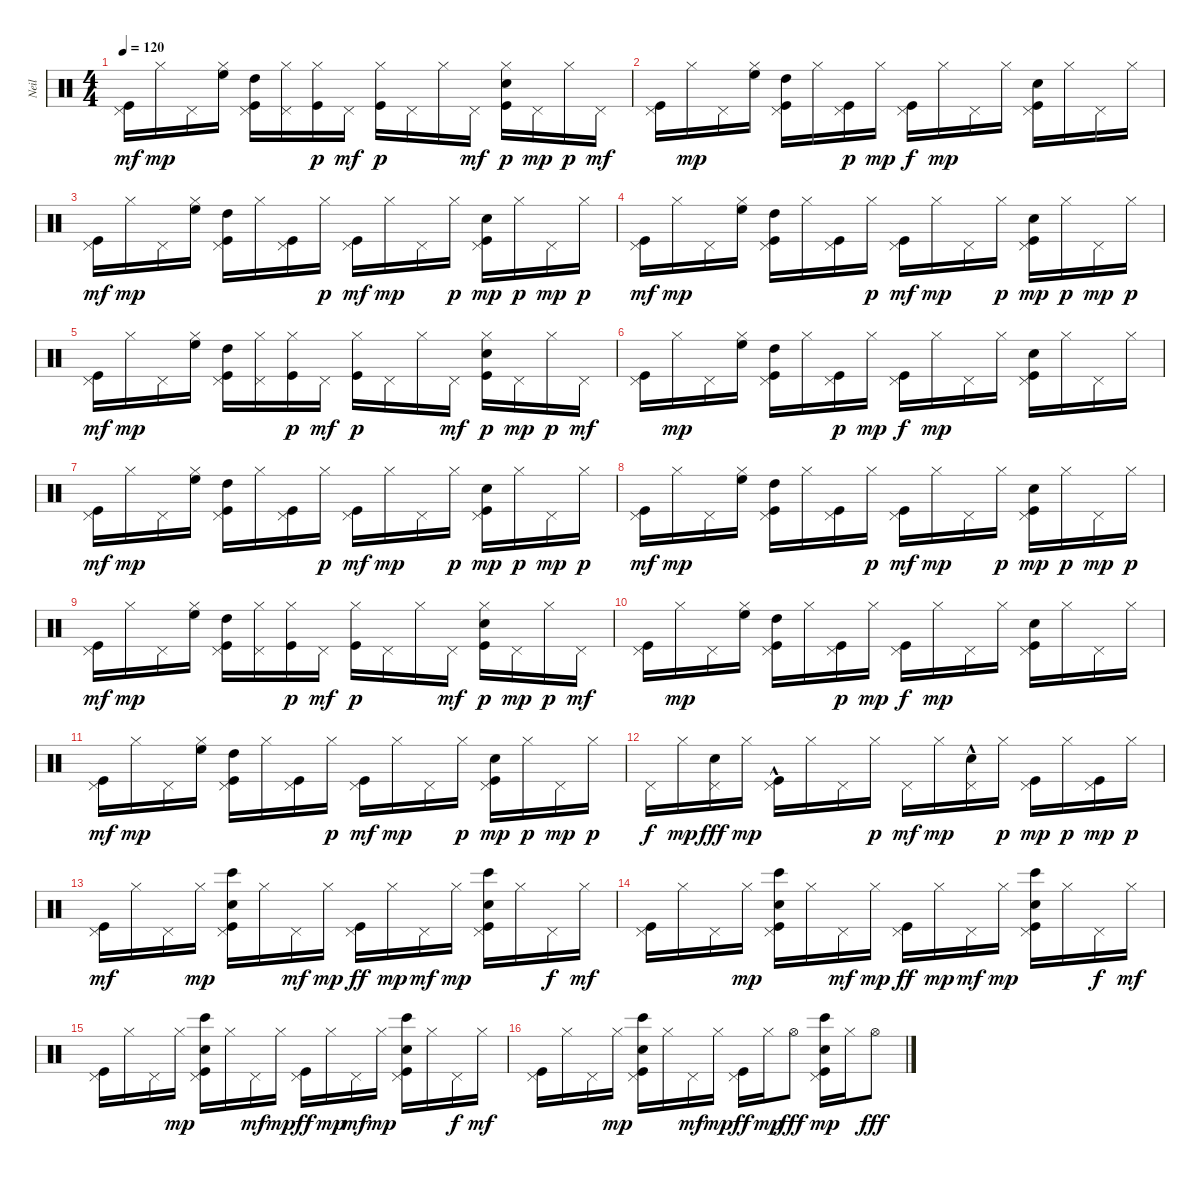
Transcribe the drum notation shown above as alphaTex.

\track ("Neil" "Neil") {instrument percussion}
\staff {score}
\articulation defaults
\ts (4 4)
\tempo 120
\clef neutral
\ks c
("Kick (hit)" "Pedal Hi-Hat (hit)").16{dy mf volume 12} "Hi-Hat (closed)".16{dy mp volume 11} "Pedal Hi-Hat (hit)".16 ("High Floor Tom (hit)" "Hi-Hat (closed)").16 ("Kick (hit)" "High Tom (hit)" "Pedal Hi-Hat (hit)").16 ("Hi-Hat (closed)" "Pedal Hi-Hat (hit)").16 ("Kick (hit)" "Hi-Hat (closed)").16{dy p volume 11} "Pedal Hi-Hat (hit)".16{dy mf} ("Kick (hit)" "Hi-Hat (closed)").16{dy p} "Pedal Hi-Hat (hit)".16 "Hi-Hat (closed)".16 "Pedal Hi-Hat (hit)".16{dy mf} ("Electric Snare (hit)" "Kick (hit)" "Hi-Hat (closed)").16{dy p} "Pedal Hi-Hat (hit)".16{dy mp volume 11} "Hi-Hat (closed)".16{dy p} "Pedal Hi-Hat (hit)".16{dy mf} |
("Kick (hit)" "Pedal Hi-Hat (hit)").16 "Hi-Hat (closed)".16{dy mp} "Pedal Hi-Hat (hit)".16 ("High Floor Tom (hit)" "Hi-Hat (closed)").16 ("Kick (hit)" "High Tom (hit)" "Pedal Hi-Hat (hit)").16 "Hi-Hat (closed)".16 ("Kick (hit)" "Pedal Hi-Hat (hit)").16{dy p} "Hi-Hat (closed)".16{dy mp} ("Kick (hit)" "Pedal Hi-Hat (hit)").16{dy f} "Hi-Hat (closed)".16{dy mp} "Pedal Hi-Hat (hit)".16 "Hi-Hat (closed)".16 ("Electric Snare (hit)" "Kick (hit)" "Pedal Hi-Hat (hit)").16 "Hi-Hat (closed)".16 "Pedal Hi-Hat (hit)".16 "Hi-Hat (closed)".16 |
("Kick (hit)" "Pedal Hi-Hat (hit)").16{dy mf} "Hi-Hat (closed)".16{dy mp} "Pedal Hi-Hat (hit)".16 ("High Floor Tom (hit)" "Hi-Hat (closed)").16 ("Kick (hit)" "High Tom (hit)" "Pedal Hi-Hat (hit)").16 "Hi-Hat (closed)".16 ("Kick (hit)" "Pedal Hi-Hat (hit)").16 "Hi-Hat (closed)".16{dy p} ("Kick (hit)" "Pedal Hi-Hat (hit)").16{dy mf} "Hi-Hat (closed)".16{dy mp} "Pedal Hi-Hat (hit)".16 "Hi-Hat (closed)".16{dy p} ("Electric Snare (hit)" "Kick (hit)" "Pedal Hi-Hat (hit)").16{dy mp} "Hi-Hat (closed)".16{dy p} "Pedal Hi-Hat (hit)".16{dy mp} "Hi-Hat (closed)".16{dy p} |
("Kick (hit)" "Pedal Hi-Hat (hit)").16{dy mf volume 11} "Hi-Hat (closed)".16{dy mp} "Pedal Hi-Hat (hit)".16 ("High Floor Tom (hit)" "Hi-Hat (closed)").16 ("Kick (hit)" "High Tom (hit)" "Pedal Hi-Hat (hit)").16 "Hi-Hat (closed)".16 ("Kick (hit)" "Pedal Hi-Hat (hit)").16 "Hi-Hat (closed)".16{dy p} ("Kick (hit)" "Pedal Hi-Hat (hit)").16{dy mf} "Hi-Hat (closed)".16{dy mp} "Pedal Hi-Hat (hit)".16 "Hi-Hat (closed)".16{dy p} ("Kick (hit)" "Electric Snare (hit)" "Pedal Hi-Hat (hit)").16{dy mp} "Hi-Hat (closed)".16{dy p} "Pedal Hi-Hat (hit)".16{dy mp} "Hi-Hat (closed)".16{dy p} |
("Kick (hit)" "Pedal Hi-Hat (hit)").16{dy mf} "Hi-Hat (closed)".16{dy mp} "Pedal Hi-Hat (hit)".16 ("High Floor Tom (hit)" "Hi-Hat (closed)").16 ("Kick (hit)" "High Tom (hit)" "Pedal Hi-Hat (hit)").16 ("Hi-Hat (closed)" "Pedal Hi-Hat (hit)").16 ("Kick (hit)" "Hi-Hat (closed)").16{dy p} "Pedal Hi-Hat (hit)".16{dy mf} ("Kick (hit)" "Hi-Hat (closed)").16{dy p} "Pedal Hi-Hat (hit)".16 "Hi-Hat (closed)".16 "Pedal Hi-Hat (hit)".16{dy mf volume 11} ("Kick (hit)" "Electric Snare (hit)" "Hi-Hat (closed)").16{dy p} "Pedal Hi-Hat (hit)".16{dy mp} "Hi-Hat (closed)".16{dy p} "Pedal Hi-Hat (hit)".16{dy mf} |
("Kick (hit)" "Pedal Hi-Hat (hit)").16 "Hi-Hat (closed)".16{dy mp} "Pedal Hi-Hat (hit)".16 ("High Floor Tom (hit)" "Hi-Hat (closed)").16 ("Kick (hit)" "High Tom (hit)" "Pedal Hi-Hat (hit)").16 "Hi-Hat (closed)".16 ("Kick (hit)" "Pedal Hi-Hat (hit)").16{dy p} "Hi-Hat (closed)".16{dy mp} ("Kick (hit)" "Pedal Hi-Hat (hit)").16{dy f} "Hi-Hat (closed)".16{dy mp} "Pedal Hi-Hat (hit)".16 "Hi-Hat (closed)".16 ("Kick (hit)" "Electric Snare (hit)" "Pedal Hi-Hat (hit)").16 "Hi-Hat (closed)".16 "Pedal Hi-Hat (hit)".16 "Hi-Hat (closed)".16 |
("Kick (hit)" "Pedal Hi-Hat (hit)").16{dy mf} "Hi-Hat (closed)".16{dy mp} "Pedal Hi-Hat (hit)".16 ("High Floor Tom (hit)" "Hi-Hat (closed)").16 ("Kick (hit)" "High Tom (hit)" "Pedal Hi-Hat (hit)").16 "Hi-Hat (closed)".16 ("Kick (hit)" "Pedal Hi-Hat (hit)").16 "Hi-Hat (closed)".16{dy p} ("Kick (hit)" "Pedal Hi-Hat (hit)").16{dy mf} "Hi-Hat (closed)".16{dy mp} "Pedal Hi-Hat (hit)".16 "Hi-Hat (closed)".16{dy p} ("Kick (hit)" "Electric Snare (hit)" "Pedal Hi-Hat (hit)").16{dy mp} "Hi-Hat (closed)".16{dy p} "Pedal Hi-Hat (hit)".16{dy mp} "Hi-Hat (closed)".16{dy p} |
("Kick (hit)" "Pedal Hi-Hat (hit)").16{dy mf} "Hi-Hat (closed)".16{dy mp} "Pedal Hi-Hat (hit)".16 ("High Floor Tom (hit)" "Hi-Hat (closed)").16 ("Kick (hit)" "High Tom (hit)" "Pedal Hi-Hat (hit)").16 "Hi-Hat (closed)".16 ("Kick (hit)" "Pedal Hi-Hat (hit)").16 "Hi-Hat (closed)".16{dy p} ("Kick (hit)" "Pedal Hi-Hat (hit)").16{dy mf} "Hi-Hat (closed)".16{dy mp} "Pedal Hi-Hat (hit)".16 "Hi-Hat (closed)".16{dy p} ("Kick (hit)" "Electric Snare (hit)" "Pedal Hi-Hat (hit)").16{dy mp} "Hi-Hat (closed)".16{dy p} "Pedal Hi-Hat (hit)".16{dy mp} "Hi-Hat (closed)".16{dy p} |
("Kick (hit)" "Pedal Hi-Hat (hit)").16{dy mf} "Hi-Hat (closed)".16{dy mp} "Pedal Hi-Hat (hit)".16 ("High Floor Tom (hit)" "Hi-Hat (closed)").16 ("Kick (hit)" "High Tom (hit)" "Pedal Hi-Hat (hit)").16 ("Hi-Hat (closed)" "Pedal Hi-Hat (hit)").16 ("Kick (hit)" "Hi-Hat (closed)").16{dy p} "Pedal Hi-Hat (hit)".16{dy mf} ("Kick (hit)" "Hi-Hat (closed)").16{dy p} "Pedal Hi-Hat (hit)".16 "Hi-Hat (closed)".16 "Pedal Hi-Hat (hit)".16{dy mf} ("Kick (hit)" "Electric Snare (hit)" "Hi-Hat (closed)").16{dy p} "Pedal Hi-Hat (hit)".16{dy mp} "Hi-Hat (closed)".16{dy p} "Pedal Hi-Hat (hit)".16{dy mf} |
("Kick (hit)" "Pedal Hi-Hat (hit)").16 "Hi-Hat (closed)".16{dy mp} "Pedal Hi-Hat (hit)".16 ("High Floor Tom (hit)" "Hi-Hat (closed)").16 ("Kick (hit)" "High Tom (hit)" "Pedal Hi-Hat (hit)").16 "Hi-Hat (closed)".16 ("Kick (hit)" "Pedal Hi-Hat (hit)").16{dy p} "Hi-Hat (closed)".16{dy mp} ("Kick (hit)" "Pedal Hi-Hat (hit)").16{dy f} "Hi-Hat (closed)".16{dy mp} "Pedal Hi-Hat (hit)".16 "Hi-Hat (closed)".16 ("Kick (hit)" "Electric Snare (hit)" "Pedal Hi-Hat (hit)").16 "Hi-Hat (closed)".16 "Pedal Hi-Hat (hit)".16 "Hi-Hat (closed)".16 |
("Kick (hit)" "Pedal Hi-Hat (hit)").16{dy mf} "Hi-Hat (closed)".16{dy mp} "Pedal Hi-Hat (hit)".16 ("High Floor Tom (hit)" "Hi-Hat (closed)").16 ("Kick (hit)" "High Tom (hit)" "Pedal Hi-Hat (hit)").16 "Hi-Hat (closed)".16 ("Kick (hit)" "Pedal Hi-Hat (hit)").16 "Hi-Hat (closed)".16{dy p} ("Kick (hit)" "Pedal Hi-Hat (hit)").16{dy mf} "Hi-Hat (closed)".16{dy mp} "Pedal Hi-Hat (hit)".16 "Hi-Hat (closed)".16{dy p} ("Kick (hit)" "Electric Snare (hit)" "Pedal Hi-Hat (hit)").16{dy mp} "Hi-Hat (closed)".16{dy p} "Pedal Hi-Hat (hit)".16{dy mp} "Hi-Hat (closed)".16{dy p} |
"Pedal Hi-Hat (hit)".16{dy f} "Hi-Hat (closed)".16{dy mp volume 11} ("Pedal Hi-Hat (hit)" "Electric Snare (hit)").16{dy fff} "Hi-Hat (closed)".16{dy mp} ("Pedal Hi-Hat (hit)" "Kick (hit)"{hac}).16 "Hi-Hat (closed)".16 "Pedal Hi-Hat (hit)".16 "Hi-Hat (closed)".16{dy p} "Pedal Hi-Hat (hit)".16{dy mf} "Hi-Hat (closed)".16{dy mp} ("Pedal Hi-Hat (hit)" "Electric Snare (hit)"{hac}).16 "Hi-Hat (closed)".16{dy p} ("Pedal Hi-Hat (hit)" "Kick (hit)").16{dy mp} "Hi-Hat (closed)".16{dy p} ("Pedal Hi-Hat (hit)" "Kick (hit)").16{dy mp} "Hi-Hat (closed)".16{dy p} |
("Pedal Hi-Hat (hit)" "Kick (hit)").16{dy mf} "Hi-Hat (closed)".16 "Pedal Hi-Hat (hit)".16 "Hi-Hat (closed)".16{dy mp} ("Electric Snare (hit)" "Pedal Hi-Hat (hit)" "Kick (hit)" "Bongo High (hit)").16 "Hi-Hat (closed)".16 "Pedal Hi-Hat (hit)".16{dy mf} "Hi-Hat (closed)".16{dy mp} ("Pedal Hi-Hat (hit)" "Kick (hit)").16{dy ff volume 11} "Hi-Hat (closed)".16{dy mp} "Pedal Hi-Hat (hit)".16{dy mf} "Hi-Hat (closed)".16{dy mp} ("Electric Snare (hit)" "Pedal Hi-Hat (hit)" "Kick (hit)" "Bongo High (hit)").16 "Hi-Hat (closed)".16 "Pedal Hi-Hat (hit)".16{dy f} "Hi-Hat (closed)".16{dy mf} |
("Pedal Hi-Hat (hit)" "Kick (hit)").16 "Hi-Hat (closed)".16 "Pedal Hi-Hat (hit)".16 "Hi-Hat (closed)".16{dy mp} ("Electric Snare (hit)" "Pedal Hi-Hat (hit)" "Kick (hit)" "Bongo High (hit)").16 "Hi-Hat (closed)".16 "Pedal Hi-Hat (hit)".16{dy mf} "Hi-Hat (closed)".16{dy mp} ("Pedal Hi-Hat (hit)" "Kick (hit)").16{dy ff} "Hi-Hat (closed)".16{dy mp} "Pedal Hi-Hat (hit)".16{dy mf} "Hi-Hat (closed)".16{dy mp} ("Electric Snare (hit)" "Pedal Hi-Hat (hit)" "Kick (hit)" "Bongo High (hit)").16 "Hi-Hat (closed)".16 "Pedal Hi-Hat (hit)".16{dy f} "Hi-Hat (closed)".16{dy mf} |
("Pedal Hi-Hat (hit)" "Kick (hit)").16 "Hi-Hat (closed)".16 "Pedal Hi-Hat (hit)".16 "Hi-Hat (closed)".16{dy mp} ("Electric Snare (hit)" "Pedal Hi-Hat (hit)" "Kick (hit)" "Bongo High (hit)").16 "Hi-Hat (closed)".16 "Pedal Hi-Hat (hit)".16{dy mf} "Hi-Hat (closed)".16{dy mp} ("Pedal Hi-Hat (hit)" "Kick (hit)").16{dy ff} "Hi-Hat (closed)".16{dy mp} "Pedal Hi-Hat (hit)".16{dy mf} "Hi-Hat (closed)".16{dy mp} ("Electric Snare (hit)" "Pedal Hi-Hat (hit)" "Kick (hit)" "Bongo High (hit)").16 "Hi-Hat (closed)".16 "Pedal Hi-Hat (hit)".16{dy f} "Hi-Hat (closed)".16{dy mf} |
("Pedal Hi-Hat (hit)" "Kick (hit)").16 "Hi-Hat (closed)".16 "Pedal Hi-Hat (hit)".16 "Hi-Hat (closed)".16{dy mp} ("Electric Snare (hit)" "Pedal Hi-Hat (hit)" "Kick (hit)" "Bongo High (hit)").16 "Hi-Hat (closed)".16 "Pedal Hi-Hat (hit)".16{dy mf} "Hi-Hat (closed)".16{dy mp} ("Pedal Hi-Hat (hit)" "Kick (hit)").16{dy ff} "Hi-Hat (closed)".16{dy mp} "Hi-Hat (open)".8{dy fff} ("Electric Snare (hit)" "Pedal Hi-Hat (hit)" "Kick (hit)" "Bongo High (hit)").16{dy mp} "Hi-Hat (closed)".16 "Hi-Hat (open)".8{dy fff}
